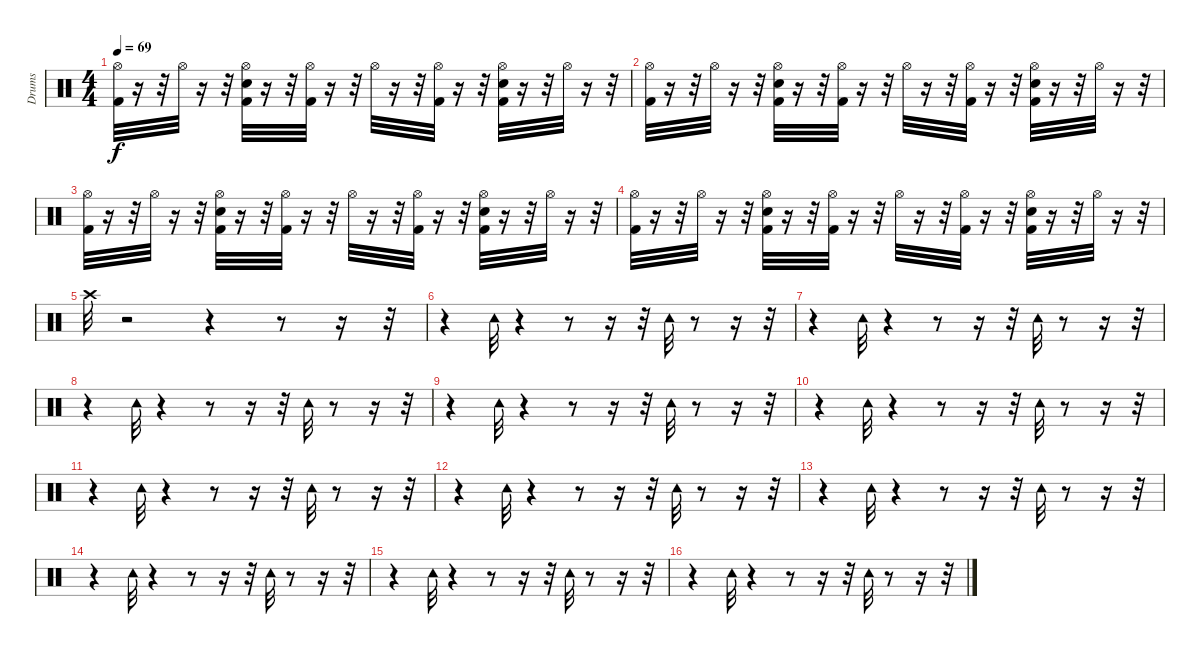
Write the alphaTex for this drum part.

\track ("Drums" "Drums") {instrument percussion}
\staff {score}
\articulation defaults
\ts (4 4)
\tempo 69
\clef neutral
\ks c
("Hi-Hat (open)" "Kick (hit) 2").32{dy f} r.16 r.32 "Hi-Hat (open)".32 r.16 r.32 ("Electric Snare (hit)" "Hi-Hat (open)" "Kick (hit) 2").32 r.16 r.32 ("Kick (hit) 2" "Hi-Hat (open)").32 r.16 r.32 "Hi-Hat (open)".32 r.16 r.32 ("Kick (hit) 2" "Hi-Hat (open)").32 r.16 r.32 ("Electric Snare (hit)" "Kick (hit) 2" "Hi-Hat (open)").32 r.16 r.32 "Hi-Hat (open)".32 r.16 r.32 |
("Hi-Hat (open)" "Kick (hit) 2").32 r.16 r.32 "Hi-Hat (open)".32 r.16 r.32 ("Electric Snare (hit)" "Hi-Hat (open)" "Kick (hit) 2").32 r.16 r.32 ("Kick (hit) 2" "Hi-Hat (open)").32 r.16 r.32 "Hi-Hat (open)".32 r.16 r.32 ("Kick (hit) 2" "Hi-Hat (open)").32 r.16 r.32 ("Electric Snare (hit)" "Kick (hit) 2" "Hi-Hat (open)").32 r.16 r.32 "Hi-Hat (open)".32 r.16 r.32 |
("Hi-Hat (open)" "Kick (hit) 2").32 r.16 r.32 "Hi-Hat (open)".32 r.16 r.32 ("Electric Snare (hit)" "Hi-Hat (open)" "Kick (hit) 2").32 r.16 r.32 ("Kick (hit) 2" "Hi-Hat (open)").32 r.16 r.32 "Hi-Hat (open)".32 r.16 r.32 ("Kick (hit) 2" "Hi-Hat (open)").32 r.16 r.32 ("Electric Snare (hit)" "Kick (hit) 2" "Hi-Hat (open)").32 r.16 r.32 "Hi-Hat (open)".32 r.16 r.32 |
("Hi-Hat (open)" "Kick (hit) 2").32 r.16 r.32 "Hi-Hat (open)".32 r.16 r.32 ("Electric Snare (hit)" "Hi-Hat (open)" "Kick (hit) 2").32 r.16 r.32 ("Kick (hit) 2" "Hi-Hat (open)").32 r.16 r.32 "Hi-Hat (open)".32 r.16 r.32 ("Kick (hit) 2" "Hi-Hat (open)").32 r.16 r.32 ("Electric Snare (hit)" "Kick (hit) 2" "Hi-Hat (open)").32 r.16 r.32 "Hi-Hat (open)".32 r.16 r.32 |
"Crash high (hit)".32 r.2 r.4 r.8 r.16 r.32 |
r.4 "Tambourine (hit)".32 r.4 r.8 r.16 r.32 "Tambourine (hit)".32 r.8 r.16 r.32 |
r.4 "Tambourine (hit)".32 r.4 r.8 r.16 r.32 "Tambourine (hit)".32 r.8 r.16 r.32 |
r.4 "Tambourine (hit)".32 r.4 r.8 r.16 r.32 "Tambourine (hit)".32 r.8 r.16 r.32 |
r.4 "Tambourine (hit)".32 r.4 r.8 r.16 r.32 "Tambourine (hit)".32 r.8 r.16 r.32 |
r.4 "Tambourine (hit)".32 r.4 r.8 r.16 r.32 "Tambourine (hit)".32 r.8 r.16 r.32 |
r.4 "Tambourine (hit)".32 r.4 r.8 r.16 r.32 "Tambourine (hit)".32 r.8 r.16 r.32 |
r.4 "Tambourine (hit)".32 r.4 r.8 r.16 r.32 "Tambourine (hit)".32 r.8 r.16 r.32 |
r.4 "Tambourine (hit)".32 r.4 r.8 r.16 r.32 "Tambourine (hit)".32 r.8 r.16 r.32 |
r.4 "Tambourine (hit)".32 r.4 r.8 r.16 r.32 "Tambourine (hit)".32 r.8 r.16 r.32 |
r.4 "Tambourine (hit)".32 r.4 r.8 r.16 r.32 "Tambourine (hit)".32 r.8 r.16 r.32 |
r.4 "Tambourine (hit)".32 r.4 r.8 r.16 r.32 "Tambourine (hit)".32 r.8 r.16 r.32
